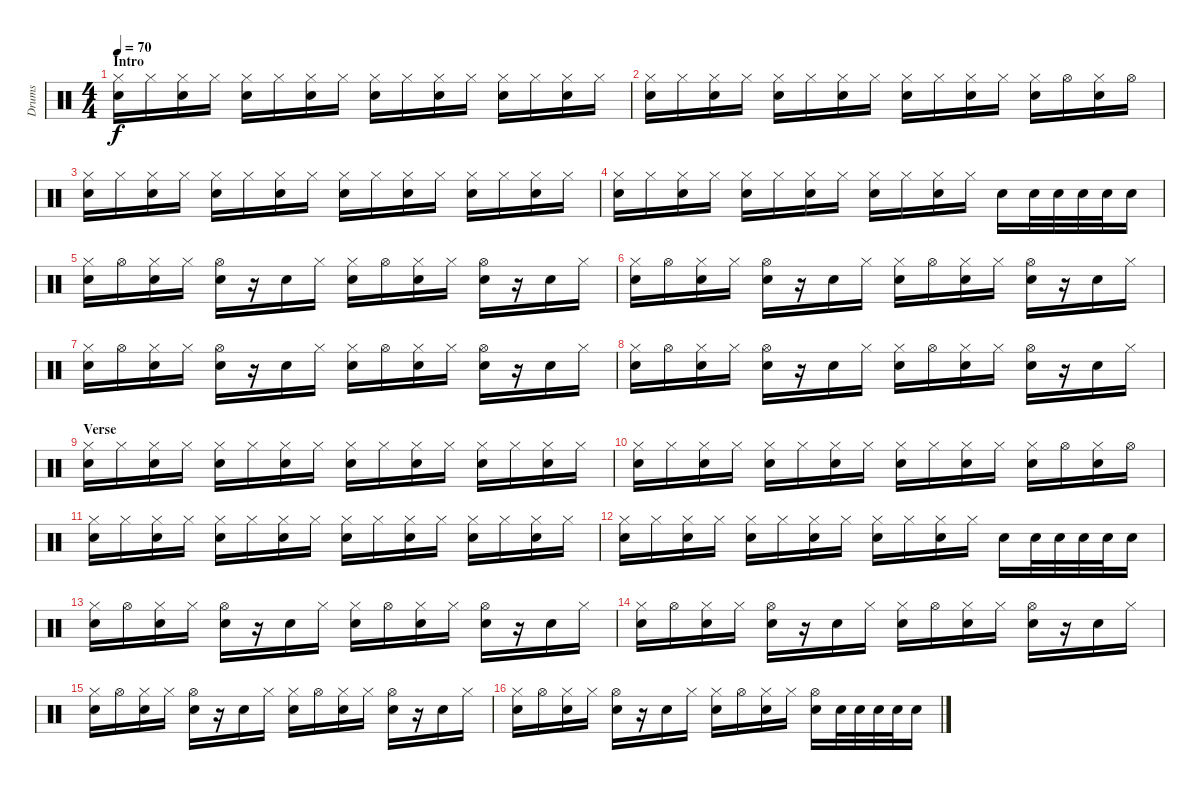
\track ("Drums" "Drums") {instrument percussion}
\staff {score}
\articulation defaults
\ts (4 4)
\section ("" "Intro")
\tempo 70
\clef neutral
\ks c
("Hi-Hat (closed)" "Electric Snare (hit)").16{dy f} "Hi-Hat (closed)".16 ("Hi-Hat (closed)" "Electric Snare (hit)").16 "Hi-Hat (closed)".16 ("Hi-Hat (closed)" "Electric Snare (hit)").16 "Hi-Hat (closed)".16 ("Hi-Hat (closed)" "Electric Snare (hit)").16 "Hi-Hat (closed)".16 ("Hi-Hat (closed)" "Electric Snare (hit)").16 "Hi-Hat (closed)".16 ("Hi-Hat (closed)" "Electric Snare (hit)").16 "Hi-Hat (closed)".16 ("Hi-Hat (closed)" "Electric Snare (hit)").16 "Hi-Hat (closed)".16 ("Hi-Hat (closed)" "Electric Snare (hit)").16 "Hi-Hat (closed)".16 |
("Hi-Hat (closed)" "Electric Snare (hit)").16 "Hi-Hat (closed)".16 ("Hi-Hat (closed)" "Electric Snare (hit)").16 "Hi-Hat (closed)".16 ("Hi-Hat (closed)" "Electric Snare (hit)").16 "Hi-Hat (closed)".16 ("Hi-Hat (closed)" "Electric Snare (hit)").16 "Hi-Hat (closed)".16 ("Hi-Hat (closed)" "Electric Snare (hit)").16 "Hi-Hat (closed)".16 ("Hi-Hat (closed)" "Electric Snare (hit)").16 "Hi-Hat (closed)".16 ("Hi-Hat (closed)" "Electric Snare (hit)").16 "Hi-Hat (open)".16 ("Hi-Hat (closed)" "Electric Snare (hit)").16 "Hi-Hat (open)".16 |
("Hi-Hat (closed)" "Electric Snare (hit)").16 "Hi-Hat (closed)".16 ("Hi-Hat (closed)" "Electric Snare (hit)").16 "Hi-Hat (closed)".16 ("Hi-Hat (closed)" "Electric Snare (hit)").16 "Hi-Hat (closed)".16 ("Hi-Hat (closed)" "Electric Snare (hit)").16 "Hi-Hat (closed)".16 ("Hi-Hat (closed)" "Electric Snare (hit)").16 "Hi-Hat (closed)".16 ("Hi-Hat (closed)" "Electric Snare (hit)").16 "Hi-Hat (closed)".16 ("Hi-Hat (closed)" "Electric Snare (hit)").16 "Hi-Hat (closed)".16 ("Hi-Hat (closed)" "Electric Snare (hit)").16 "Hi-Hat (closed)".16 |
("Hi-Hat (closed)" "Electric Snare (hit)").16 "Hi-Hat (closed)".16 ("Hi-Hat (closed)" "Electric Snare (hit)").16 "Hi-Hat (closed)".16 ("Hi-Hat (closed)" "Electric Snare (hit)").16 "Hi-Hat (closed)".16 ("Hi-Hat (closed)" "Electric Snare (hit)").16 "Hi-Hat (closed)".16 ("Hi-Hat (closed)" "Electric Snare (hit)").16 "Hi-Hat (closed)".16 ("Hi-Hat (closed)" "Electric Snare (hit)").16 "Hi-Hat (closed)".16 "Electric Snare (hit)".16 "Electric Snare (hit)".32 "Electric Snare (hit)".32 "Electric Snare (hit)".32 "Electric Snare (hit)".32 "Electric Snare (hit)".16 |
("Hi-Hat (closed)" "Electric Snare (hit)").16 "Hi-Hat (open)".16 ("Hi-Hat (closed)" "Electric Snare (hit)").16 "Hi-Hat (closed)".16 ("Hi-Hat (open)" "Electric Snare (hit)").16 r.16 "Electric Snare (hit)".16 "Hi-Hat (closed)".16 ("Hi-Hat (closed)" "Electric Snare (hit)").16 "Hi-Hat (open)".16 ("Hi-Hat (closed)" "Electric Snare (hit)").16 "Hi-Hat (closed)".16 ("Hi-Hat (open)" "Electric Snare (hit)").16 r.16 "Electric Snare (hit)".16 "Hi-Hat (closed)".16 |
("Hi-Hat (closed)" "Electric Snare (hit)").16 "Hi-Hat (open)".16 ("Hi-Hat (closed)" "Electric Snare (hit)").16 "Hi-Hat (closed)".16 ("Hi-Hat (open)" "Electric Snare (hit)").16 r.16 "Electric Snare (hit)".16 "Hi-Hat (closed)".16 ("Hi-Hat (closed)" "Electric Snare (hit)").16 "Hi-Hat (open)".16 ("Hi-Hat (closed)" "Electric Snare (hit)").16 "Hi-Hat (closed)".16 ("Hi-Hat (open)" "Electric Snare (hit)").16 r.16 "Electric Snare (hit)".16 "Hi-Hat (closed)".16 |
("Hi-Hat (closed)" "Electric Snare (hit)").16 "Hi-Hat (open)".16 ("Hi-Hat (closed)" "Electric Snare (hit)").16 "Hi-Hat (closed)".16 ("Hi-Hat (open)" "Electric Snare (hit)").16 r.16 "Electric Snare (hit)".16 "Hi-Hat (closed)".16 ("Hi-Hat (closed)" "Electric Snare (hit)").16 "Hi-Hat (open)".16 ("Hi-Hat (closed)" "Electric Snare (hit)").16 "Hi-Hat (closed)".16 ("Hi-Hat (open)" "Electric Snare (hit)").16 r.16 "Electric Snare (hit)".16 "Hi-Hat (closed)".16 |
("Hi-Hat (closed)" "Electric Snare (hit)").16 "Hi-Hat (open)".16 ("Hi-Hat (closed)" "Electric Snare (hit)").16 "Hi-Hat (closed)".16 ("Hi-Hat (open)" "Electric Snare (hit)").16 r.16 "Electric Snare (hit)".16 "Hi-Hat (closed)".16 ("Hi-Hat (closed)" "Electric Snare (hit)").16 "Hi-Hat (open)".16 ("Hi-Hat (closed)" "Electric Snare (hit)").16 "Hi-Hat (closed)".16 ("Hi-Hat (open)" "Electric Snare (hit)").16 r.16 "Electric Snare (hit)".16 "Hi-Hat (closed)".16 |
\section ("" "Verse")
("Hi-Hat (closed)" "Electric Snare (hit)").16 "Hi-Hat (closed)".16 ("Hi-Hat (closed)" "Electric Snare (hit)").16 "Hi-Hat (closed)".16 ("Hi-Hat (closed)" "Electric Snare (hit)").16 "Hi-Hat (closed)".16 ("Hi-Hat (closed)" "Electric Snare (hit)").16 "Hi-Hat (closed)".16 ("Hi-Hat (closed)" "Electric Snare (hit)").16 "Hi-Hat (closed)".16 ("Hi-Hat (closed)" "Electric Snare (hit)").16 "Hi-Hat (closed)".16 ("Hi-Hat (closed)" "Electric Snare (hit)").16 "Hi-Hat (closed)".16 ("Hi-Hat (closed)" "Electric Snare (hit)").16 "Hi-Hat (closed)".16 |
("Hi-Hat (closed)" "Electric Snare (hit)").16 "Hi-Hat (closed)".16 ("Hi-Hat (closed)" "Electric Snare (hit)").16 "Hi-Hat (closed)".16 ("Hi-Hat (closed)" "Electric Snare (hit)").16 "Hi-Hat (closed)".16 ("Hi-Hat (closed)" "Electric Snare (hit)").16 "Hi-Hat (closed)".16 ("Hi-Hat (closed)" "Electric Snare (hit)").16 "Hi-Hat (closed)".16 ("Hi-Hat (closed)" "Electric Snare (hit)").16 "Hi-Hat (closed)".16 ("Hi-Hat (closed)" "Electric Snare (hit)").16 "Hi-Hat (open)".16 ("Hi-Hat (closed)" "Electric Snare (hit)").16 "Hi-Hat (open)".16 |
("Hi-Hat (closed)" "Electric Snare (hit)").16 "Hi-Hat (closed)".16 ("Hi-Hat (closed)" "Electric Snare (hit)").16 "Hi-Hat (closed)".16 ("Hi-Hat (closed)" "Electric Snare (hit)").16 "Hi-Hat (closed)".16 ("Hi-Hat (closed)" "Electric Snare (hit)").16 "Hi-Hat (closed)".16 ("Hi-Hat (closed)" "Electric Snare (hit)").16 "Hi-Hat (closed)".16 ("Hi-Hat (closed)" "Electric Snare (hit)").16 "Hi-Hat (closed)".16 ("Hi-Hat (closed)" "Electric Snare (hit)").16 "Hi-Hat (closed)".16 ("Hi-Hat (closed)" "Electric Snare (hit)").16 "Hi-Hat (closed)".16 |
("Hi-Hat (closed)" "Electric Snare (hit)").16 "Hi-Hat (closed)".16 ("Hi-Hat (closed)" "Electric Snare (hit)").16 "Hi-Hat (closed)".16 ("Hi-Hat (closed)" "Electric Snare (hit)").16 "Hi-Hat (closed)".16 ("Hi-Hat (closed)" "Electric Snare (hit)").16 "Hi-Hat (closed)".16 ("Hi-Hat (closed)" "Electric Snare (hit)").16 "Hi-Hat (closed)".16 ("Hi-Hat (closed)" "Electric Snare (hit)").16 "Hi-Hat (closed)".16 "Electric Snare (hit)".16 "Electric Snare (hit)".32 "Electric Snare (hit)".32 "Electric Snare (hit)".32 "Electric Snare (hit)".32 "Electric Snare (hit)".16 |
("Hi-Hat (closed)" "Electric Snare (hit)").16 "Hi-Hat (open)".16 ("Hi-Hat (closed)" "Electric Snare (hit)").16 "Hi-Hat (closed)".16 ("Hi-Hat (open)" "Electric Snare (hit)").16 r.16 "Electric Snare (hit)".16 "Hi-Hat (closed)".16 ("Hi-Hat (closed)" "Electric Snare (hit)").16 "Hi-Hat (open)".16 ("Hi-Hat (closed)" "Electric Snare (hit)").16 "Hi-Hat (closed)".16 ("Hi-Hat (open)" "Electric Snare (hit)").16 r.16 "Electric Snare (hit)".16 "Hi-Hat (closed)".16 |
("Hi-Hat (closed)" "Electric Snare (hit)").16 "Hi-Hat (open)".16 ("Hi-Hat (closed)" "Electric Snare (hit)").16 "Hi-Hat (closed)".16 ("Hi-Hat (open)" "Electric Snare (hit)").16 r.16 "Electric Snare (hit)".16 "Hi-Hat (closed)".16 ("Hi-Hat (closed)" "Electric Snare (hit)").16 "Hi-Hat (open)".16 ("Hi-Hat (closed)" "Electric Snare (hit)").16 "Hi-Hat (closed)".16 ("Hi-Hat (open)" "Electric Snare (hit)").16 r.16 "Electric Snare (hit)".16 "Hi-Hat (closed)".16 |
("Hi-Hat (closed)" "Electric Snare (hit)").16 "Hi-Hat (open)".16 ("Hi-Hat (closed)" "Electric Snare (hit)").16 "Hi-Hat (closed)".16 ("Hi-Hat (open)" "Electric Snare (hit)").16 r.16 "Electric Snare (hit)".16 "Hi-Hat (closed)".16 ("Hi-Hat (closed)" "Electric Snare (hit)").16 "Hi-Hat (open)".16 ("Hi-Hat (closed)" "Electric Snare (hit)").16 "Hi-Hat (closed)".16 ("Hi-Hat (open)" "Electric Snare (hit)").16 r.16 "Electric Snare (hit)".16 "Hi-Hat (closed)".16 |
("Hi-Hat (closed)" "Electric Snare (hit)").16 "Hi-Hat (open)".16 ("Hi-Hat (closed)" "Electric Snare (hit)").16 "Hi-Hat (closed)".16 ("Hi-Hat (open)" "Electric Snare (hit)").16 r.16 "Electric Snare (hit)".16 "Hi-Hat (closed)".16 ("Hi-Hat (closed)" "Electric Snare (hit)").16 "Hi-Hat (open)".16 ("Hi-Hat (closed)" "Electric Snare (hit)").16 "Hi-Hat (closed)".16 ("Hi-Hat (open)" "Electric Snare (hit)").16 "Electric Snare (hit)".32 "Electric Snare (hit)".32 "Electric Snare (hit)".32 "Electric Snare (hit)".32 "Electric Snare (hit)".16
